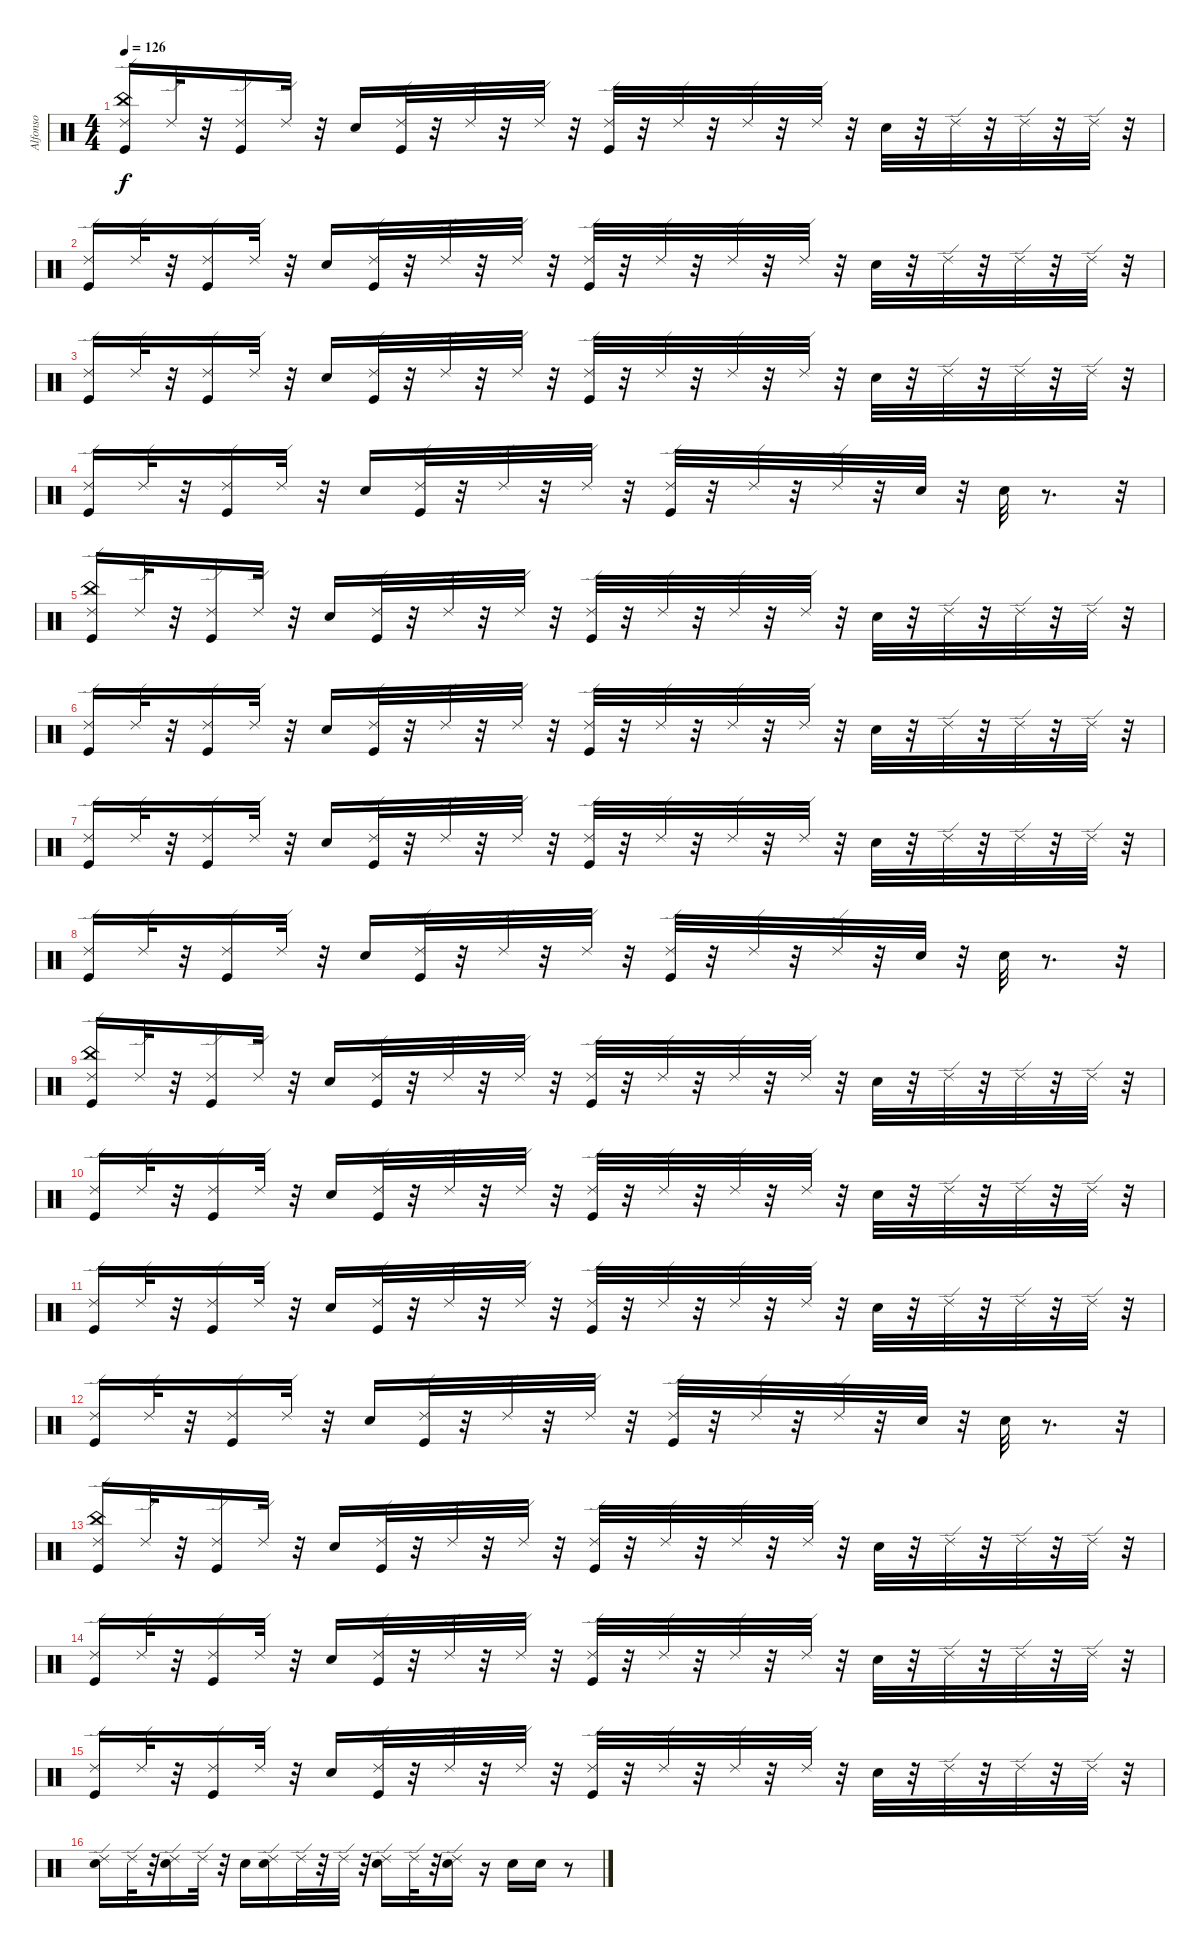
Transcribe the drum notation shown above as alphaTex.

\track ("Alfonso" "Alfonso") {instrument percussion}
\staff {score}
\articulation defaults
\ts (4 4)
\tempo 126
\clef neutral
\ks c
("Ride (edge) 2" "China (hit)" "Kick (hit)").16{dy f} "Ride (edge) 2".32 r.32 ("Ride (edge) 2" "Kick (hit)").16 "Ride (edge) 2".32 r.32 "Snare (hit) 2".16 ("Kick (hit)" "Ride (edge) 2").32 r.32 "Ride (edge) 2".32 r.32 "Ride (edge) 2".32 r.32 ("Kick (hit)" "Ride (edge) 2").32 r.32 "Ride (edge) 2".32 r.32 "Ride (edge) 2".32 r.32 "Ride (edge) 2".32 r.32 "Snare (hit) 2".32 r.32 "Ride (edge) 2".32 r.32 "Ride (edge) 2".32 r.32 "Ride (edge) 2".32 r.32 |
("Ride (edge) 2" "Kick (hit)").16 "Ride (edge) 2".32 r.32 ("Kick (hit)" "Ride (edge) 2").16 "Ride (edge) 2".32 r.32 "Snare (hit) 2".16 ("Ride (edge) 2" "Kick (hit)").32 r.32 "Ride (edge) 2".32 r.32 "Ride (edge) 2".32 r.32 ("Kick (hit)" "Ride (edge) 2").32 r.32 "Ride (edge) 2".32 r.32 "Ride (edge) 2".32 r.32 "Ride (edge) 2".32 r.32 "Snare (hit) 2".32 r.32 "Ride (edge) 2".32 r.32 "Ride (edge) 2".32 r.32 "Ride (edge) 2".32 r.32 |
("Kick (hit)" "Ride (edge) 2").16 "Ride (edge) 2".32 r.32 ("Kick (hit)" "Ride (edge) 2").16 "Ride (edge) 2".32 r.32 "Snare (hit) 2".16 ("Ride (edge) 2" "Kick (hit)").32 r.32 "Ride (edge) 2".32 r.32 "Ride (edge) 2".32 r.32 ("Ride (edge) 2" "Kick (hit)").32 r.32 "Ride (edge) 2".32 r.32 "Ride (edge) 2".32 r.32 "Ride (edge) 2".32 r.32 "Snare (hit) 2".32 r.32 "Ride (edge) 2".32 r.32 "Ride (edge) 2".32 r.32 "Ride (edge) 2".32 r.32 |
("Kick (hit)" "Ride (edge) 2").16 "Ride (edge) 2".32 r.32 ("Kick (hit)" "Ride (edge) 2").16 "Ride (edge) 2".32 r.32 "Snare (hit) 2".16 ("Kick (hit)" "Ride (edge) 2").32 r.32 "Ride (edge) 2".32 r.32 "Ride (edge) 2".32 r.32 ("Kick (hit)" "Ride (edge) 2").32 r.32 "Ride (edge) 2".32 r.32 "Ride (edge) 2".32 r.32 "Snare (hit) 2".32 r.32 "Snare (hit) 2".32 r.8{d} r.32 |
("Ride (edge) 2" "China (hit)" "Kick (hit)").16 "Ride (edge) 2".32 r.32 ("Ride (edge) 2" "Kick (hit)").16 "Ride (edge) 2".32 r.32 "Snare (hit) 2".16 ("Kick (hit)" "Ride (edge) 2").32 r.32 "Ride (edge) 2".32 r.32 "Ride (edge) 2".32 r.32 ("Kick (hit)" "Ride (edge) 2").32 r.32 "Ride (edge) 2".32 r.32 "Ride (edge) 2".32 r.32 "Ride (edge) 2".32 r.32 "Snare (hit) 2".32 r.32 "Ride (edge) 2".32 r.32 "Ride (edge) 2".32 r.32 "Ride (edge) 2".32 r.32 |
("Ride (edge) 2" "Kick (hit)").16 "Ride (edge) 2".32 r.32 ("Kick (hit)" "Ride (edge) 2").16 "Ride (edge) 2".32 r.32 "Snare (hit) 2".16 ("Ride (edge) 2" "Kick (hit)").32 r.32 "Ride (edge) 2".32 r.32 "Ride (edge) 2".32 r.32 ("Kick (hit)" "Ride (edge) 2").32 r.32 "Ride (edge) 2".32 r.32 "Ride (edge) 2".32 r.32 "Ride (edge) 2".32 r.32 "Snare (hit) 2".32 r.32 "Ride (edge) 2".32 r.32 "Ride (edge) 2".32 r.32 "Ride (edge) 2".32 r.32 |
("Kick (hit)" "Ride (edge) 2").16 "Ride (edge) 2".32 r.32 ("Kick (hit)" "Ride (edge) 2").16 "Ride (edge) 2".32 r.32 "Snare (hit) 2".16 ("Ride (edge) 2" "Kick (hit)").32 r.32 "Ride (edge) 2".32 r.32 "Ride (edge) 2".32 r.32 ("Ride (edge) 2" "Kick (hit)").32 r.32 "Ride (edge) 2".32 r.32 "Ride (edge) 2".32 r.32 "Ride (edge) 2".32 r.32 "Snare (hit) 2".32 r.32 "Ride (edge) 2".32 r.32 "Ride (edge) 2".32 r.32 "Ride (edge) 2".32 r.32 |
("Kick (hit)" "Ride (edge) 2").16 "Ride (edge) 2".32 r.32 ("Kick (hit)" "Ride (edge) 2").16 "Ride (edge) 2".32 r.32 "Snare (hit) 2".16 ("Kick (hit)" "Ride (edge) 2").32 r.32 "Ride (edge) 2".32 r.32 "Ride (edge) 2".32 r.32 ("Kick (hit)" "Ride (edge) 2").32 r.32 "Ride (edge) 2".32 r.32 "Ride (edge) 2".32 r.32 "Snare (hit) 2".32 r.32 "Snare (hit) 2".32 r.8{d} r.32 |
("Ride (edge) 2" "China (hit)" "Kick (hit)").16 "Ride (edge) 2".32 r.32 ("Ride (edge) 2" "Kick (hit)").16 "Ride (edge) 2".32 r.32 "Snare (hit) 2".16 ("Kick (hit)" "Ride (edge) 2").32 r.32 "Ride (edge) 2".32 r.32 "Ride (edge) 2".32 r.32 ("Kick (hit)" "Ride (edge) 2").32 r.32 "Ride (edge) 2".32 r.32 "Ride (edge) 2".32 r.32 "Ride (edge) 2".32 r.32 "Snare (hit) 2".32 r.32 "Ride (edge) 2".32 r.32 "Ride (edge) 2".32 r.32 "Ride (edge) 2".32 r.32 |
("Ride (edge) 2" "Kick (hit)").16 "Ride (edge) 2".32 r.32 ("Kick (hit)" "Ride (edge) 2").16 "Ride (edge) 2".32 r.32 "Snare (hit) 2".16 ("Ride (edge) 2" "Kick (hit)").32 r.32 "Ride (edge) 2".32 r.32 "Ride (edge) 2".32 r.32 ("Kick (hit)" "Ride (edge) 2").32 r.32 "Ride (edge) 2".32 r.32 "Ride (edge) 2".32 r.32 "Ride (edge) 2".32 r.32 "Snare (hit) 2".32 r.32 "Ride (edge) 2".32 r.32 "Ride (edge) 2".32 r.32 "Ride (edge) 2".32 r.32 |
("Kick (hit)" "Ride (edge) 2").16 "Ride (edge) 2".32 r.32 ("Kick (hit)" "Ride (edge) 2").16 "Ride (edge) 2".32 r.32 "Snare (hit) 2".16 ("Ride (edge) 2" "Kick (hit)").32 r.32 "Ride (edge) 2".32 r.32 "Ride (edge) 2".32 r.32 ("Ride (edge) 2" "Kick (hit)").32 r.32 "Ride (edge) 2".32 r.32 "Ride (edge) 2".32 r.32 "Ride (edge) 2".32 r.32 "Snare (hit) 2".32 r.32 "Ride (edge) 2".32 r.32 "Ride (edge) 2".32 r.32 "Ride (edge) 2".32 r.32 |
("Kick (hit)" "Ride (edge) 2").16 "Ride (edge) 2".32 r.32 ("Kick (hit)" "Ride (edge) 2").16 "Ride (edge) 2".32 r.32 "Snare (hit) 2".16 ("Kick (hit)" "Ride (edge) 2").32 r.32 "Ride (edge) 2".32 r.32 "Ride (edge) 2".32 r.32 ("Kick (hit)" "Ride (edge) 2").32 r.32 "Ride (edge) 2".32 r.32 "Ride (edge) 2".32 r.32 "Snare (hit) 2".32 r.32 "Snare (hit) 2".32 r.8{d} r.32 |
("Ride (edge) 2" "China (hit)" "Kick (hit)").16 "Ride (edge) 2".32 r.32 ("Ride (edge) 2" "Kick (hit)").16 "Ride (edge) 2".32 r.32 "Snare (hit) 2".16 ("Kick (hit)" "Ride (edge) 2").32 r.32 "Ride (edge) 2".32 r.32 "Ride (edge) 2".32 r.32 ("Kick (hit)" "Ride (edge) 2").32 r.32 "Ride (edge) 2".32 r.32 "Ride (edge) 2".32 r.32 "Ride (edge) 2".32 r.32 "Snare (hit) 2".32 r.32 "Ride (edge) 2".32 r.32 "Ride (edge) 2".32 r.32 "Ride (edge) 2".32 r.32 |
("Ride (edge) 2" "Kick (hit)").16 "Ride (edge) 2".32 r.32 ("Kick (hit)" "Ride (edge) 2").16 "Ride (edge) 2".32 r.32 "Snare (hit) 2".16 ("Ride (edge) 2" "Kick (hit)").32 r.32 "Ride (edge) 2".32 r.32 "Ride (edge) 2".32 r.32 ("Kick (hit)" "Ride (edge) 2").32 r.32 "Ride (edge) 2".32 r.32 "Ride (edge) 2".32 r.32 "Ride (edge) 2".32 r.32 "Snare (hit) 2".32 r.32 "Ride (edge) 2".32 r.32 "Ride (edge) 2".32 r.32 "Ride (edge) 2".32 r.32 |
("Kick (hit)" "Ride (edge) 2").16 "Ride (edge) 2".32 r.32 ("Kick (hit)" "Ride (edge) 2").16 "Ride (edge) 2".32 r.32 "Snare (hit) 2".16 ("Ride (edge) 2" "Kick (hit)").32 r.32 "Ride (edge) 2".32 r.32 "Ride (edge) 2".32 r.32 ("Ride (edge) 2" "Kick (hit)").32 r.32 "Ride (edge) 2".32 r.32 "Ride (edge) 2".32 r.32 "Ride (edge) 2".32 r.32 "Snare (hit) 2".32 r.32 "Ride (edge) 2".32 r.32 "Ride (edge) 2".32 r.32 "Ride (edge) 2".32 r.32 |
("Snare (hit) 2" "Ride (edge) 2").16 "Ride (edge) 2".32 r.32 ("Snare (hit) 2" "Ride (edge) 2").16 "Ride (edge) 2".32 r.32 "Snare (hit) 2".16 ("Snare (hit) 2" "Ride (edge) 2").16 "Ride (edge) 2".32 r.32 "Ride (edge) 2".32 r.32 ("Ride (edge) 2" "Snare (hit) 2").16 "Ride (edge) 2".32 r.32 ("Ride (edge) 2" "Snare (hit) 2").16 r.16 "Snare (hit) 2".16 "Snare (hit) 2".16 r.8
